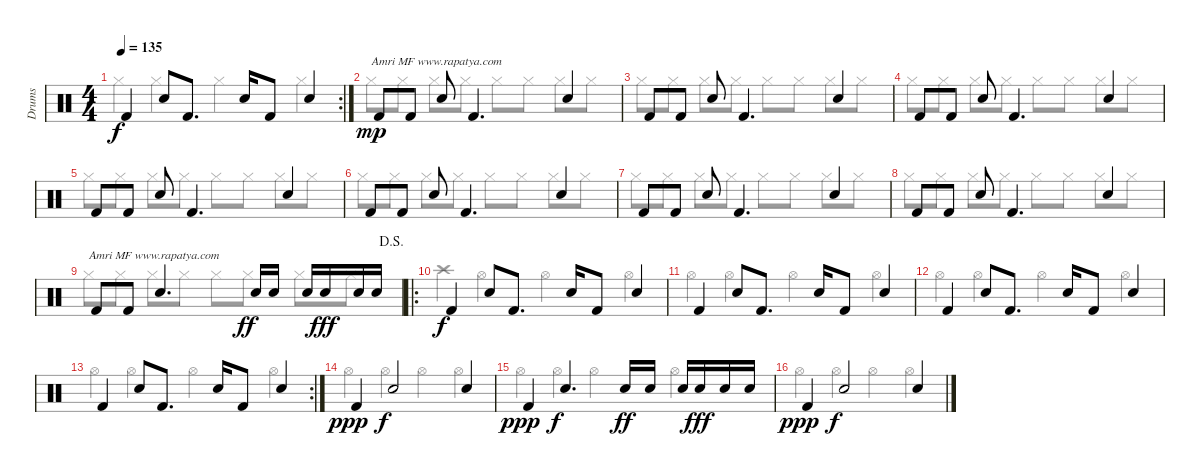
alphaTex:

\track ("Drums" "Drums") {instrument percussion}
\staff {score}
\articulation defaults
\voice
\rc 2
\ts (4 4)
\tempo 135
\clef neutral
\ks c "Kick (hit) 2".4{dy f} "Snare (hit) 2".8 "Kick (hit) 2".8{d} "Snare (hit) 2".16 "Kick (hit) 2".8 "Snare (hit) 2".4
|
"Kick (hit) 2".8{txt "Amri MF www.rapatya.com" dy mp} "Kick (hit) 2".8 "Snare (hit) 2".8 "Kick (hit) 2".4{d} "Snare (hit) 2".4 |
"Kick (hit) 2".8 "Kick (hit) 2".8 "Snare (hit) 2".8 "Kick (hit) 2".4{d} "Snare (hit) 2".4 |
"Kick (hit) 2".8 "Kick (hit) 2".8 "Snare (hit) 2".8 "Kick (hit) 2".4{d} "Snare (hit) 2".4 |
"Kick (hit) 2".8 "Kick (hit) 2".8 "Snare (hit) 2".8 "Kick (hit) 2".4{d} "Snare (hit) 2".4 |
"Kick (hit) 2".8 "Kick (hit) 2".8 "Snare (hit) 2".8 "Kick (hit) 2".4{d} "Snare (hit) 2".4 |
"Kick (hit) 2".8 "Kick (hit) 2".8 "Snare (hit) 2".8 "Kick (hit) 2".4{d} "Snare (hit) 2".4 |
"Kick (hit) 2".8 "Kick (hit) 2".8 "Snare (hit) 2".8 "Kick (hit) 2".4{d} "Snare (hit) 2".4 |
\jump dalsegno "Kick (hit) 2".8{txt "Amri MF www.rapatya.com"} "Kick (hit) 2".8 "Snare (hit) 2".4{d} "Snare (hit) 2".16{dy ff} "Snare (hit) 2".16 "Snare (hit) 2".16 "Snare (hit) 2".16{dy fff} "Snare (hit) 2".16 "Snare (hit) 2".16
|
\ro "Kick (hit) 2".4{dy f} "Snare (hit) 2".8 "Kick (hit) 2".8{d} "Snare (hit) 2".16 "Kick (hit) 2".8 "Snare (hit) 2".4
|
"Kick (hit) 2".4 "Snare (hit) 2".8 "Kick (hit) 2".8{d} "Snare (hit) 2".16 "Kick (hit) 2".8 "Snare (hit) 2".4 |
"Kick (hit) 2".4 "Snare (hit) 2".8 "Kick (hit) 2".8{d} "Snare (hit) 2".16 "Kick (hit) 2".8 "Snare (hit) 2".4 |
\rc 2 "Kick (hit) 2".4 "Snare (hit) 2".8 "Kick (hit) 2".8{d} "Snare (hit) 2".16 "Kick (hit) 2".8 "Snare (hit) 2".4
|
"Kick (hit) 2".4{dy ppp} "Snare (hit) 2".2{dy f} "Snare (hit) 2".4 |
"Kick (hit) 2".4{dy ppp} "Snare (hit) 2".4{d dy f} "Snare (hit) 2".16{dy ff} "Snare (hit) 2".16 "Snare (hit) 2".16 "Snare (hit) 2".16{dy fff} "Snare (hit) 2".16 "Snare (hit) 2".16 |
"Kick (hit) 2".4{dy ppp} "Snare (hit) 2".2{dy f} "Snare (hit) 2".4
\voice
\clef neutral
\ottava regular
\simile none
\ks c "Hi-Hat (closed)".4{dy f} "Hi-Hat (closed)".4 "Hi-Hat (closed)".4 "Hi-Hat (closed)".4
|
"Hi-Hat (closed)".8 "Hi-Hat (closed)".8 "Hi-Hat (closed)".8 "Hi-Hat (closed)".8 "Hi-Hat (closed)".8 "Hi-Hat (closed)".8 "Hi-Hat (closed)".8 "Hi-Hat (closed)".8 |
"Hi-Hat (closed)".8 "Hi-Hat (closed)".8 "Hi-Hat (closed)".8 "Hi-Hat (closed)".8 "Hi-Hat (closed)".8 "Hi-Hat (closed)".8 "Hi-Hat (closed)".8 "Hi-Hat (closed)".8 |
"Hi-Hat (closed)".8 "Hi-Hat (closed)".8 "Hi-Hat (closed)".8 "Hi-Hat (closed)".8 "Hi-Hat (closed)".8 "Hi-Hat (closed)".8 "Hi-Hat (closed)".8 "Hi-Hat (closed)".8 |
"Hi-Hat (closed)".8 "Hi-Hat (closed)".8 "Hi-Hat (closed)".8 "Hi-Hat (closed)".8 "Hi-Hat (closed)".8 "Hi-Hat (closed)".8 "Hi-Hat (closed)".8 "Hi-Hat (closed)".8 |
"Hi-Hat (closed)".8 "Hi-Hat (closed)".8 "Hi-Hat (closed)".8 "Hi-Hat (closed)".8 "Hi-Hat (closed)".8 "Hi-Hat (closed)".8 "Hi-Hat (closed)".8 "Hi-Hat (closed)".8 |
"Hi-Hat (closed)".8 "Hi-Hat (closed)".8 "Hi-Hat (closed)".8 "Hi-Hat (closed)".8 "Hi-Hat (closed)".8 "Hi-Hat (closed)".8 "Hi-Hat (closed)".8 "Hi-Hat (closed)".8 |
"Hi-Hat (closed)".8 "Hi-Hat (closed)".8 "Hi-Hat (closed)".8 "Hi-Hat (closed)".8 "Hi-Hat (closed)".8 "Hi-Hat (closed)".8 "Hi-Hat (closed)".8 "Hi-Hat (closed)".8 |
"Hi-Hat (closed)".8 "Hi-Hat (closed)".8 "Hi-Hat (closed)".8 "Hi-Hat (closed)".8 "Hi-Hat (closed)".8 "Hi-Hat (closed)".8 "Hi-Hat (closed)".8 "Hi-Hat (closed)".8 |
"Crash high (hit)".4 "Hi-Hat (open)".4 "Hi-Hat (open)".4 "Hi-Hat (open)".4 |
"Hi-Hat (open)".4 "Hi-Hat (open)".4 "Hi-Hat (open)".4 "Hi-Hat (open)".4 |
"Hi-Hat (open)".4 "Hi-Hat (open)".4 "Hi-Hat (open)".4 "Hi-Hat (open)".4 |
"Hi-Hat (open)".4 "Hi-Hat (open)".4 "Hi-Hat (open)".4 "Hi-Hat (open)".4 |
"Hi-Hat (open)".4 "Hi-Hat (open)".4 "Hi-Hat (open)".4 "Hi-Hat (open)".4 |
"Hi-Hat (open)".4 "Hi-Hat (open)".4 "Hi-Hat (open)".4 "Hi-Hat (open)".4 |
"Hi-Hat (open)".4 "Hi-Hat (open)".4 "Hi-Hat (open)".4 "Hi-Hat (open)".4
